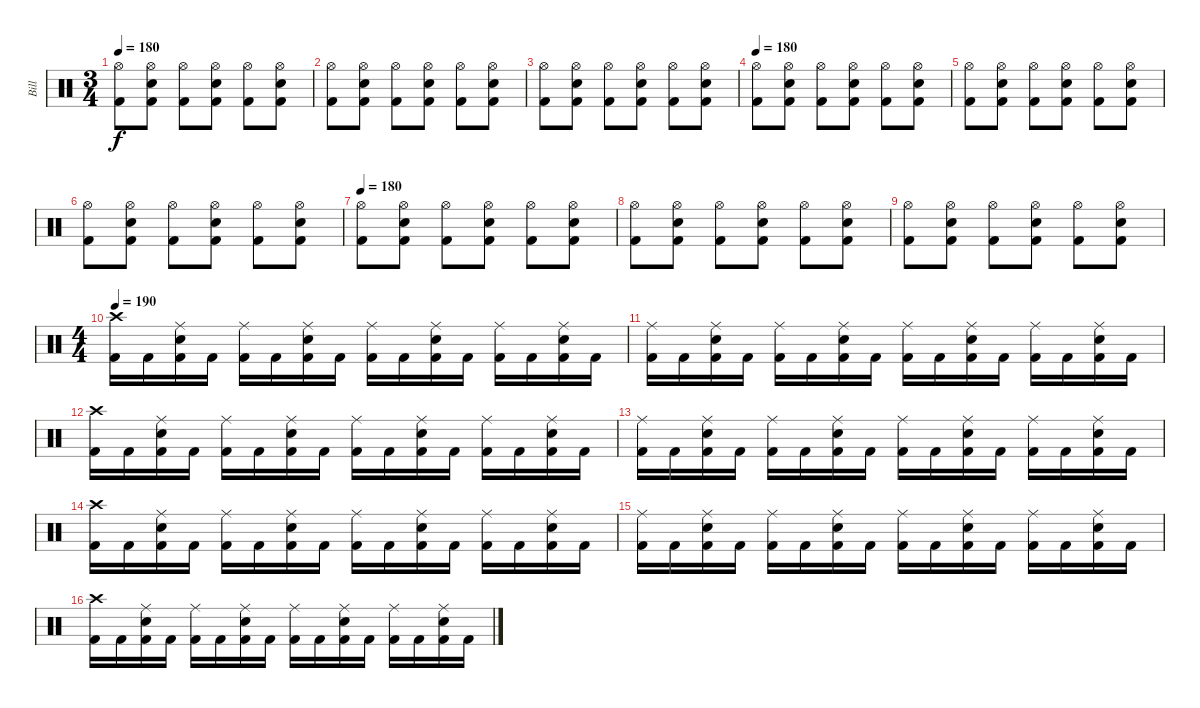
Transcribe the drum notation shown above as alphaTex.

\track ("Bill" "Bill") {instrument percussion}
\staff {score}
\articulation defaults
\ts (3 4)
\tempo 190
\tempo 180
\clef neutral
\ks c
("Hi-Hat (open)" "Kick (hit) 2").8{dy f} ("Hi-Hat (open)" "Snare (hit) 2" "Kick (hit) 2").8 ("Hi-Hat (open)" "Kick (hit) 2").8 ("Hi-Hat (open)" "Snare (hit) 2" "Kick (hit) 2").8 ("Hi-Hat (open)" "Kick (hit) 2").8 ("Hi-Hat (open)" "Snare (hit) 2" "Kick (hit) 2").8 |
("Hi-Hat (open)" "Kick (hit) 2").8 ("Hi-Hat (open)" "Snare (hit) 2" "Kick (hit) 2").8 ("Hi-Hat (open)" "Kick (hit) 2").8 ("Hi-Hat (open)" "Snare (hit) 2" "Kick (hit) 2").8 ("Hi-Hat (open)" "Kick (hit) 2").8 ("Hi-Hat (open)" "Snare (hit) 2" "Kick (hit) 2").8 |
("Hi-Hat (open)" "Kick (hit) 2").8 ("Hi-Hat (open)" "Snare (hit) 2" "Kick (hit) 2").8 ("Hi-Hat (open)" "Kick (hit) 2").8 ("Hi-Hat (open)" "Snare (hit) 2" "Kick (hit) 2").8 ("Hi-Hat (open)" "Kick (hit) 2").8 ("Hi-Hat (open)" "Snare (hit) 2" "Kick (hit) 2").8 |
\tempo 190
\tempo 180
("Hi-Hat (open)" "Kick (hit) 2").8 ("Hi-Hat (open)" "Snare (hit) 2" "Kick (hit) 2").8 ("Hi-Hat (open)" "Kick (hit) 2").8 ("Hi-Hat (open)" "Snare (hit) 2" "Kick (hit) 2").8 ("Hi-Hat (open)" "Kick (hit) 2").8 ("Hi-Hat (open)" "Snare (hit) 2" "Kick (hit) 2").8 |
("Hi-Hat (open)" "Kick (hit) 2").8 ("Hi-Hat (open)" "Snare (hit) 2" "Kick (hit) 2").8 ("Hi-Hat (open)" "Kick (hit) 2").8 ("Hi-Hat (open)" "Snare (hit) 2" "Kick (hit) 2").8 ("Hi-Hat (open)" "Kick (hit) 2").8 ("Hi-Hat (open)" "Snare (hit) 2" "Kick (hit) 2").8 |
("Hi-Hat (open)" "Kick (hit) 2").8 ("Hi-Hat (open)" "Snare (hit) 2" "Kick (hit) 2").8 ("Hi-Hat (open)" "Kick (hit) 2").8 ("Hi-Hat (open)" "Snare (hit) 2" "Kick (hit) 2").8 ("Hi-Hat (open)" "Kick (hit) 2").8 ("Hi-Hat (open)" "Snare (hit) 2" "Kick (hit) 2").8 |
\tempo 190
\tempo 180
("Hi-Hat (open)" "Kick (hit) 2").8 ("Hi-Hat (open)" "Snare (hit) 2" "Kick (hit) 2").8 ("Hi-Hat (open)" "Kick (hit) 2").8 ("Hi-Hat (open)" "Snare (hit) 2" "Kick (hit) 2").8 ("Hi-Hat (open)" "Kick (hit) 2").8 ("Hi-Hat (open)" "Snare (hit) 2" "Kick (hit) 2").8 |
("Hi-Hat (open)" "Kick (hit) 2").8 ("Hi-Hat (open)" "Snare (hit) 2" "Kick (hit) 2").8 ("Hi-Hat (open)" "Kick (hit) 2").8 ("Hi-Hat (open)" "Snare (hit) 2" "Kick (hit) 2").8 ("Hi-Hat (open)" "Kick (hit) 2").8 ("Hi-Hat (open)" "Snare (hit) 2" "Kick (hit) 2").8 |
("Hi-Hat (open)" "Kick (hit) 2").8 ("Hi-Hat (open)" "Snare (hit) 2" "Kick (hit) 2").8 ("Hi-Hat (open)" "Kick (hit) 2").8 ("Hi-Hat (open)" "Snare (hit) 2" "Kick (hit) 2").8 ("Hi-Hat (open)" "Kick (hit) 2").8 ("Hi-Hat (open)" "Snare (hit) 2" "Kick (hit) 2").8 |
\ts (4 4)
\tempo 190
("Crash high (hit)" "Kick (hit) 2").16 "Kick (hit) 2".16 ("Ride (middle)" "Snare (hit) 2" "Kick (hit) 2").16 "Kick (hit) 2".16 ("Ride (middle)" "Kick (hit) 2").16 "Kick (hit) 2".16 ("Ride (middle)" "Snare (hit) 2" "Kick (hit) 2").16 "Kick (hit) 2".16 ("Ride (middle)" "Kick (hit) 2").16 "Kick (hit) 2".16 ("Ride (middle)" "Snare (hit) 2" "Kick (hit) 2").16 "Kick (hit) 2".16 ("Ride (middle)" "Kick (hit) 2").16 "Kick (hit) 2".16 ("Ride (middle)" "Snare (hit) 2" "Kick (hit) 2").16 "Kick (hit) 2".16 |
("Ride (middle)" "Kick (hit) 2").16 "Kick (hit) 2".16 ("Ride (middle)" "Snare (hit) 2" "Kick (hit) 2").16 "Kick (hit) 2".16 ("Ride (middle)" "Kick (hit) 2").16 "Kick (hit) 2".16 ("Ride (middle)" "Snare (hit) 2" "Kick (hit) 2").16 "Kick (hit) 2".16 ("Ride (middle)" "Kick (hit) 2").16 "Kick (hit) 2".16 ("Ride (middle)" "Snare (hit) 2" "Kick (hit) 2").16 "Kick (hit) 2".16 ("Ride (middle)" "Kick (hit) 2").16 "Kick (hit) 2".16 ("Ride (middle)" "Snare (hit) 2" "Kick (hit) 2").16 "Kick (hit) 2".16 |
("Crash high (hit)" "Kick (hit) 2").16 "Kick (hit) 2".16 ("Ride (middle)" "Snare (hit) 2" "Kick (hit) 2").16 "Kick (hit) 2".16 ("Ride (middle)" "Kick (hit) 2").16 "Kick (hit) 2".16 ("Ride (middle)" "Snare (hit) 2" "Kick (hit) 2").16 "Kick (hit) 2".16 ("Ride (middle)" "Kick (hit) 2").16 "Kick (hit) 2".16 ("Ride (middle)" "Snare (hit) 2" "Kick (hit) 2").16 "Kick (hit) 2".16 ("Ride (middle)" "Kick (hit) 2").16 "Kick (hit) 2".16 ("Ride (middle)" "Snare (hit) 2" "Kick (hit) 2").16 "Kick (hit) 2".16 |
("Ride (middle)" "Kick (hit) 2").16 "Kick (hit) 2".16 ("Ride (middle)" "Snare (hit) 2" "Kick (hit) 2").16 "Kick (hit) 2".16 ("Ride (middle)" "Kick (hit) 2").16 "Kick (hit) 2".16 ("Ride (middle)" "Snare (hit) 2" "Kick (hit) 2").16 "Kick (hit) 2".16 ("Ride (middle)" "Kick (hit) 2").16 "Kick (hit) 2".16 ("Ride (middle)" "Snare (hit) 2" "Kick (hit) 2").16 "Kick (hit) 2".16 ("Ride (middle)" "Kick (hit) 2").16 "Kick (hit) 2".16 ("Ride (middle)" "Snare (hit) 2" "Kick (hit) 2").16 "Kick (hit) 2".16 |
("Crash high (hit)" "Kick (hit) 2").16 "Kick (hit) 2".16 ("Ride (middle)" "Snare (hit) 2" "Kick (hit) 2").16 "Kick (hit) 2".16 ("Ride (middle)" "Kick (hit) 2").16 "Kick (hit) 2".16 ("Ride (middle)" "Snare (hit) 2" "Kick (hit) 2").16 "Kick (hit) 2".16 ("Ride (middle)" "Kick (hit) 2").16 "Kick (hit) 2".16 ("Ride (middle)" "Snare (hit) 2" "Kick (hit) 2").16 "Kick (hit) 2".16 ("Ride (middle)" "Kick (hit) 2").16 "Kick (hit) 2".16 ("Ride (middle)" "Snare (hit) 2" "Kick (hit) 2").16 "Kick (hit) 2".16 |
("Ride (middle)" "Kick (hit) 2").16 "Kick (hit) 2".16 ("Ride (middle)" "Snare (hit) 2" "Kick (hit) 2").16 "Kick (hit) 2".16 ("Ride (middle)" "Kick (hit) 2").16 "Kick (hit) 2".16 ("Ride (middle)" "Snare (hit) 2" "Kick (hit) 2").16 "Kick (hit) 2".16 ("Ride (middle)" "Kick (hit) 2").16 "Kick (hit) 2".16 ("Ride (middle)" "Snare (hit) 2" "Kick (hit) 2").16 "Kick (hit) 2".16 ("Ride (middle)" "Kick (hit) 2").16 "Kick (hit) 2".16 ("Ride (middle)" "Snare (hit) 2" "Kick (hit) 2").16 "Kick (hit) 2".16 |
("Crash high (hit)" "Kick (hit) 2").16 "Kick (hit) 2".16 ("Ride (middle)" "Snare (hit) 2" "Kick (hit) 2").16 "Kick (hit) 2".16 ("Ride (middle)" "Kick (hit) 2").16 "Kick (hit) 2".16 ("Ride (middle)" "Snare (hit) 2" "Kick (hit) 2").16 "Kick (hit) 2".16 ("Ride (middle)" "Kick (hit) 2").16 "Kick (hit) 2".16 ("Ride (middle)" "Snare (hit) 2" "Kick (hit) 2").16 "Kick (hit) 2".16 ("Ride (middle)" "Kick (hit) 2").16 "Kick (hit) 2".16 ("Ride (middle)" "Snare (hit) 2" "Kick (hit) 2").16 "Kick (hit) 2".16
